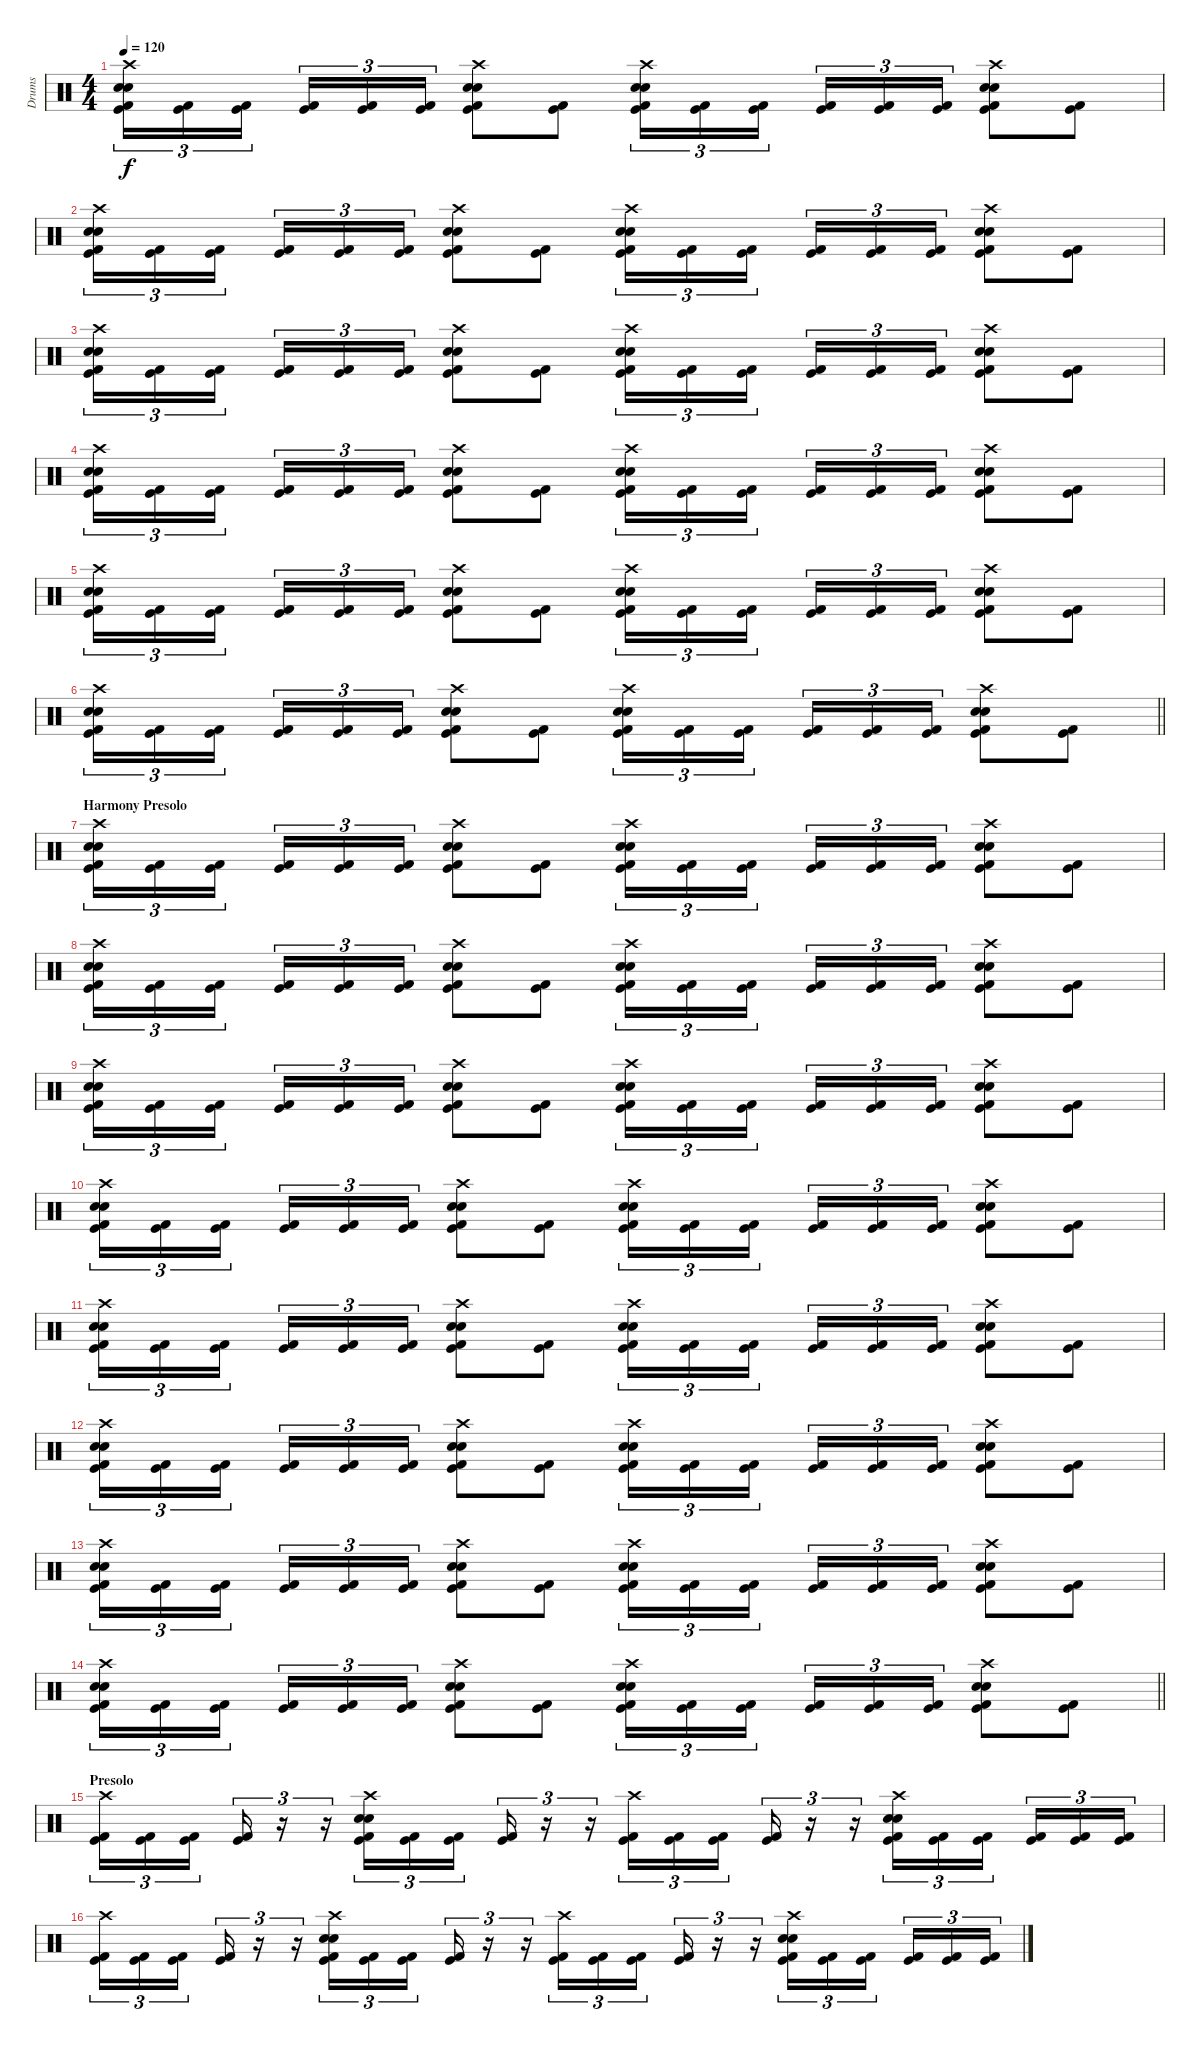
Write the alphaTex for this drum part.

\track ("Drums" "Drums") {instrument percussion}
\staff {score}
\articulation defaults
\ts (4 4)
\tempo 120
\clef neutral
\ks c
("Crash high (hit)" "Electric Snare (hit)" "Electric Snare (hit)" "Kick (hit) 2" "Kick (hit)").16{tu (3 2) dy f} ("Kick (hit) 2" "Kick (hit)").16{tu (3 2)} ("Kick (hit) 2" "Kick (hit)").16{tu (3 2) beam splitsecondary} ("Kick (hit) 2" "Kick (hit)").16{tu (3 2)} ("Kick (hit) 2" "Kick (hit)").16{tu (3 2)} ("Kick (hit) 2" "Kick (hit)").16{tu (3 2)} ("Crash high (hit)" "Electric Snare (hit)" "Electric Snare (hit)" "Kick (hit) 2" "Kick (hit)").8 ("Kick (hit) 2" "Kick (hit)").8 ("Crash high (hit)" "Electric Snare (hit)" "Electric Snare (hit)" "Kick (hit) 2" "Kick (hit)").16{tu (3 2)} ("Kick (hit) 2" "Kick (hit)").16{tu (3 2)} ("Kick (hit) 2" "Kick (hit)").16{tu (3 2) beam splitsecondary} ("Kick (hit) 2" "Kick (hit)").16{tu (3 2)} ("Kick (hit) 2" "Kick (hit)").16{tu (3 2)} ("Kick (hit) 2" "Kick (hit)").16{tu (3 2)} ("Crash high (hit)" "Electric Snare (hit)" "Electric Snare (hit)" "Kick (hit) 2" "Kick (hit)").8 ("Kick (hit) 2" "Kick (hit)").8 |
("Crash high (hit)" "Electric Snare (hit)" "Electric Snare (hit)" "Kick (hit) 2" "Kick (hit)").16{tu (3 2)} ("Kick (hit) 2" "Kick (hit)").16{tu (3 2)} ("Kick (hit) 2" "Kick (hit)").16{tu (3 2) beam splitsecondary} ("Kick (hit) 2" "Kick (hit)").16{tu (3 2)} ("Kick (hit) 2" "Kick (hit)").16{tu (3 2)} ("Kick (hit) 2" "Kick (hit)").16{tu (3 2)} ("Crash high (hit)" "Electric Snare (hit)" "Electric Snare (hit)" "Kick (hit) 2" "Kick (hit)").8 ("Kick (hit) 2" "Kick (hit)").8 ("Crash high (hit)" "Electric Snare (hit)" "Electric Snare (hit)" "Kick (hit) 2" "Kick (hit)").16{tu (3 2)} ("Kick (hit) 2" "Kick (hit)").16{tu (3 2)} ("Kick (hit) 2" "Kick (hit)").16{tu (3 2) beam splitsecondary} ("Kick (hit) 2" "Kick (hit)").16{tu (3 2)} ("Kick (hit) 2" "Kick (hit)").16{tu (3 2)} ("Kick (hit) 2" "Kick (hit)").16{tu (3 2)} ("Crash high (hit)" "Electric Snare (hit)" "Electric Snare (hit)" "Kick (hit) 2" "Kick (hit)").8 ("Kick (hit) 2" "Kick (hit)").8 |
("Crash high (hit)" "Electric Snare (hit)" "Electric Snare (hit)" "Kick (hit) 2" "Kick (hit)").16{tu (3 2)} ("Kick (hit) 2" "Kick (hit)").16{tu (3 2)} ("Kick (hit) 2" "Kick (hit)").16{tu (3 2) beam splitsecondary} ("Kick (hit) 2" "Kick (hit)").16{tu (3 2)} ("Kick (hit) 2" "Kick (hit)").16{tu (3 2)} ("Kick (hit) 2" "Kick (hit)").16{tu (3 2)} ("Crash high (hit)" "Electric Snare (hit)" "Electric Snare (hit)" "Kick (hit) 2" "Kick (hit)").8 ("Kick (hit) 2" "Kick (hit)").8 ("Crash high (hit)" "Electric Snare (hit)" "Electric Snare (hit)" "Kick (hit) 2" "Kick (hit)").16{tu (3 2)} ("Kick (hit) 2" "Kick (hit)").16{tu (3 2)} ("Kick (hit) 2" "Kick (hit)").16{tu (3 2) beam splitsecondary} ("Kick (hit) 2" "Kick (hit)").16{tu (3 2)} ("Kick (hit) 2" "Kick (hit)").16{tu (3 2)} ("Kick (hit) 2" "Kick (hit)").16{tu (3 2)} ("Crash high (hit)" "Electric Snare (hit)" "Electric Snare (hit)" "Kick (hit) 2" "Kick (hit)").8 ("Kick (hit) 2" "Kick (hit)").8 |
("Crash high (hit)" "Electric Snare (hit)" "Electric Snare (hit)" "Kick (hit) 2" "Kick (hit)").16{tu (3 2)} ("Kick (hit) 2" "Kick (hit)").16{tu (3 2)} ("Kick (hit) 2" "Kick (hit)").16{tu (3 2) beam splitsecondary} ("Kick (hit) 2" "Kick (hit)").16{tu (3 2)} ("Kick (hit) 2" "Kick (hit)").16{tu (3 2)} ("Kick (hit) 2" "Kick (hit)").16{tu (3 2)} ("Crash high (hit)" "Electric Snare (hit)" "Electric Snare (hit)" "Kick (hit) 2" "Kick (hit)").8 ("Kick (hit) 2" "Kick (hit)").8 ("Crash high (hit)" "Electric Snare (hit)" "Electric Snare (hit)" "Kick (hit) 2" "Kick (hit)").16{tu (3 2)} ("Kick (hit) 2" "Kick (hit)").16{tu (3 2)} ("Kick (hit) 2" "Kick (hit)").16{tu (3 2) beam splitsecondary} ("Kick (hit) 2" "Kick (hit)").16{tu (3 2)} ("Kick (hit) 2" "Kick (hit)").16{tu (3 2)} ("Kick (hit) 2" "Kick (hit)").16{tu (3 2)} ("Crash high (hit)" "Electric Snare (hit)" "Electric Snare (hit)" "Kick (hit) 2" "Kick (hit)").8 ("Kick (hit) 2" "Kick (hit)").8 |
("Crash high (hit)" "Electric Snare (hit)" "Electric Snare (hit)" "Kick (hit) 2" "Kick (hit)").16{tu (3 2)} ("Kick (hit) 2" "Kick (hit)").16{tu (3 2)} ("Kick (hit) 2" "Kick (hit)").16{tu (3 2) beam splitsecondary} ("Kick (hit) 2" "Kick (hit)").16{tu (3 2)} ("Kick (hit) 2" "Kick (hit)").16{tu (3 2)} ("Kick (hit) 2" "Kick (hit)").16{tu (3 2)} ("Crash high (hit)" "Electric Snare (hit)" "Electric Snare (hit)" "Kick (hit) 2" "Kick (hit)").8 ("Kick (hit) 2" "Kick (hit)").8 ("Crash high (hit)" "Electric Snare (hit)" "Electric Snare (hit)" "Kick (hit) 2" "Kick (hit)").16{tu (3 2)} ("Kick (hit) 2" "Kick (hit)").16{tu (3 2)} ("Kick (hit) 2" "Kick (hit)").16{tu (3 2) beam splitsecondary} ("Kick (hit) 2" "Kick (hit)").16{tu (3 2)} ("Kick (hit) 2" "Kick (hit)").16{tu (3 2)} ("Kick (hit) 2" "Kick (hit)").16{tu (3 2)} ("Crash high (hit)" "Electric Snare (hit)" "Electric Snare (hit)" "Kick (hit) 2" "Kick (hit)").8 ("Kick (hit) 2" "Kick (hit)").8 |
\barLineRight lightlight
("Crash high (hit)" "Electric Snare (hit)" "Electric Snare (hit)" "Kick (hit) 2" "Kick (hit)").16{tu (3 2)} ("Kick (hit) 2" "Kick (hit)").16{tu (3 2)} ("Kick (hit) 2" "Kick (hit)").16{tu (3 2) beam splitsecondary} ("Kick (hit) 2" "Kick (hit)").16{tu (3 2)} ("Kick (hit) 2" "Kick (hit)").16{tu (3 2)} ("Kick (hit) 2" "Kick (hit)").16{tu (3 2)} ("Crash high (hit)" "Electric Snare (hit)" "Electric Snare (hit)" "Kick (hit) 2" "Kick (hit)").8 ("Kick (hit) 2" "Kick (hit)").8 ("Crash high (hit)" "Electric Snare (hit)" "Electric Snare (hit)" "Kick (hit) 2" "Kick (hit)").16{tu (3 2)} ("Kick (hit) 2" "Kick (hit)").16{tu (3 2)} ("Kick (hit) 2" "Kick (hit)").16{tu (3 2) beam splitsecondary} ("Kick (hit) 2" "Kick (hit)").16{tu (3 2)} ("Kick (hit) 2" "Kick (hit)").16{tu (3 2)} ("Kick (hit) 2" "Kick (hit)").16{tu (3 2)} ("Crash high (hit)" "Electric Snare (hit)" "Electric Snare (hit)" "Kick (hit) 2" "Kick (hit)").8 ("Kick (hit) 2" "Kick (hit)").8 |
\section ("" "Harmony Presolo")
("Crash high (hit)" "Electric Snare (hit)" "Electric Snare (hit)" "Kick (hit) 2" "Kick (hit)").16{tu (3 2)} ("Kick (hit) 2" "Kick (hit)").16{tu (3 2)} ("Kick (hit) 2" "Kick (hit)").16{tu (3 2) beam splitsecondary} ("Kick (hit) 2" "Kick (hit)").16{tu (3 2)} ("Kick (hit) 2" "Kick (hit)").16{tu (3 2)} ("Kick (hit) 2" "Kick (hit)").16{tu (3 2)} ("Crash high (hit)" "Electric Snare (hit)" "Electric Snare (hit)" "Kick (hit) 2" "Kick (hit)").8 ("Kick (hit) 2" "Kick (hit)").8 ("Crash high (hit)" "Electric Snare (hit)" "Electric Snare (hit)" "Kick (hit) 2" "Kick (hit)").16{tu (3 2)} ("Kick (hit) 2" "Kick (hit)").16{tu (3 2)} ("Kick (hit) 2" "Kick (hit)").16{tu (3 2) beam splitsecondary} ("Kick (hit) 2" "Kick (hit)").16{tu (3 2)} ("Kick (hit) 2" "Kick (hit)").16{tu (3 2)} ("Kick (hit) 2" "Kick (hit)").16{tu (3 2)} ("Crash high (hit)" "Electric Snare (hit)" "Electric Snare (hit)" "Kick (hit) 2" "Kick (hit)").8 ("Kick (hit) 2" "Kick (hit)").8 |
("Crash high (hit)" "Electric Snare (hit)" "Electric Snare (hit)" "Kick (hit) 2" "Kick (hit)").16{tu (3 2)} ("Kick (hit) 2" "Kick (hit)").16{tu (3 2)} ("Kick (hit) 2" "Kick (hit)").16{tu (3 2) beam splitsecondary} ("Kick (hit) 2" "Kick (hit)").16{tu (3 2)} ("Kick (hit) 2" "Kick (hit)").16{tu (3 2)} ("Kick (hit) 2" "Kick (hit)").16{tu (3 2)} ("Crash high (hit)" "Electric Snare (hit)" "Electric Snare (hit)" "Kick (hit) 2" "Kick (hit)").8 ("Kick (hit) 2" "Kick (hit)").8 ("Crash high (hit)" "Electric Snare (hit)" "Electric Snare (hit)" "Kick (hit) 2" "Kick (hit)").16{tu (3 2)} ("Kick (hit) 2" "Kick (hit)").16{tu (3 2)} ("Kick (hit) 2" "Kick (hit)").16{tu (3 2) beam splitsecondary} ("Kick (hit) 2" "Kick (hit)").16{tu (3 2)} ("Kick (hit) 2" "Kick (hit)").16{tu (3 2)} ("Kick (hit) 2" "Kick (hit)").16{tu (3 2)} ("Crash high (hit)" "Electric Snare (hit)" "Electric Snare (hit)" "Kick (hit) 2" "Kick (hit)").8 ("Kick (hit) 2" "Kick (hit)").8 |
("Crash high (hit)" "Electric Snare (hit)" "Electric Snare (hit)" "Kick (hit) 2" "Kick (hit)").16{tu (3 2)} ("Kick (hit) 2" "Kick (hit)").16{tu (3 2)} ("Kick (hit) 2" "Kick (hit)").16{tu (3 2) beam splitsecondary} ("Kick (hit) 2" "Kick (hit)").16{tu (3 2)} ("Kick (hit) 2" "Kick (hit)").16{tu (3 2)} ("Kick (hit) 2" "Kick (hit)").16{tu (3 2)} ("Crash high (hit)" "Electric Snare (hit)" "Electric Snare (hit)" "Kick (hit) 2" "Kick (hit)").8 ("Kick (hit) 2" "Kick (hit)").8 ("Crash high (hit)" "Electric Snare (hit)" "Electric Snare (hit)" "Kick (hit) 2" "Kick (hit)").16{tu (3 2)} ("Kick (hit) 2" "Kick (hit)").16{tu (3 2)} ("Kick (hit) 2" "Kick (hit)").16{tu (3 2) beam splitsecondary} ("Kick (hit) 2" "Kick (hit)").16{tu (3 2)} ("Kick (hit) 2" "Kick (hit)").16{tu (3 2)} ("Kick (hit) 2" "Kick (hit)").16{tu (3 2)} ("Crash high (hit)" "Electric Snare (hit)" "Electric Snare (hit)" "Kick (hit) 2" "Kick (hit)").8 ("Kick (hit) 2" "Kick (hit)").8 |
("Crash high (hit)" "Electric Snare (hit)" "Electric Snare (hit)" "Kick (hit) 2" "Kick (hit)").16{tu (3 2)} ("Kick (hit) 2" "Kick (hit)").16{tu (3 2)} ("Kick (hit) 2" "Kick (hit)").16{tu (3 2) beam splitsecondary} ("Kick (hit) 2" "Kick (hit)").16{tu (3 2)} ("Kick (hit) 2" "Kick (hit)").16{tu (3 2)} ("Kick (hit) 2" "Kick (hit)").16{tu (3 2)} ("Crash high (hit)" "Electric Snare (hit)" "Electric Snare (hit)" "Kick (hit) 2" "Kick (hit)").8 ("Kick (hit) 2" "Kick (hit)").8 ("Crash high (hit)" "Electric Snare (hit)" "Electric Snare (hit)" "Kick (hit) 2" "Kick (hit)").16{tu (3 2)} ("Kick (hit) 2" "Kick (hit)").16{tu (3 2)} ("Kick (hit) 2" "Kick (hit)").16{tu (3 2) beam splitsecondary} ("Kick (hit) 2" "Kick (hit)").16{tu (3 2)} ("Kick (hit) 2" "Kick (hit)").16{tu (3 2)} ("Kick (hit) 2" "Kick (hit)").16{tu (3 2)} ("Crash high (hit)" "Electric Snare (hit)" "Electric Snare (hit)" "Kick (hit) 2" "Kick (hit)").8 ("Kick (hit) 2" "Kick (hit)").8 |
("Crash high (hit)" "Electric Snare (hit)" "Electric Snare (hit)" "Kick (hit) 2" "Kick (hit)").16{tu (3 2)} ("Kick (hit) 2" "Kick (hit)").16{tu (3 2)} ("Kick (hit) 2" "Kick (hit)").16{tu (3 2) beam splitsecondary} ("Kick (hit) 2" "Kick (hit)").16{tu (3 2)} ("Kick (hit) 2" "Kick (hit)").16{tu (3 2)} ("Kick (hit) 2" "Kick (hit)").16{tu (3 2)} ("Crash high (hit)" "Electric Snare (hit)" "Electric Snare (hit)" "Kick (hit) 2" "Kick (hit)").8 ("Kick (hit) 2" "Kick (hit)").8 ("Crash high (hit)" "Electric Snare (hit)" "Electric Snare (hit)" "Kick (hit) 2" "Kick (hit)").16{tu (3 2)} ("Kick (hit) 2" "Kick (hit)").16{tu (3 2)} ("Kick (hit) 2" "Kick (hit)").16{tu (3 2) beam splitsecondary} ("Kick (hit) 2" "Kick (hit)").16{tu (3 2)} ("Kick (hit) 2" "Kick (hit)").16{tu (3 2)} ("Kick (hit) 2" "Kick (hit)").16{tu (3 2)} ("Crash high (hit)" "Electric Snare (hit)" "Electric Snare (hit)" "Kick (hit) 2" "Kick (hit)").8 ("Kick (hit) 2" "Kick (hit)").8 |
("Crash high (hit)" "Electric Snare (hit)" "Electric Snare (hit)" "Kick (hit) 2" "Kick (hit)").16{tu (3 2)} ("Kick (hit) 2" "Kick (hit)").16{tu (3 2)} ("Kick (hit) 2" "Kick (hit)").16{tu (3 2) beam splitsecondary} ("Kick (hit) 2" "Kick (hit)").16{tu (3 2)} ("Kick (hit) 2" "Kick (hit)").16{tu (3 2)} ("Kick (hit) 2" "Kick (hit)").16{tu (3 2)} ("Crash high (hit)" "Electric Snare (hit)" "Electric Snare (hit)" "Kick (hit) 2" "Kick (hit)").8 ("Kick (hit) 2" "Kick (hit)").8 ("Crash high (hit)" "Electric Snare (hit)" "Electric Snare (hit)" "Kick (hit) 2" "Kick (hit)").16{tu (3 2)} ("Kick (hit) 2" "Kick (hit)").16{tu (3 2)} ("Kick (hit) 2" "Kick (hit)").16{tu (3 2) beam splitsecondary} ("Kick (hit) 2" "Kick (hit)").16{tu (3 2)} ("Kick (hit) 2" "Kick (hit)").16{tu (3 2)} ("Kick (hit) 2" "Kick (hit)").16{tu (3 2)} ("Crash high (hit)" "Electric Snare (hit)" "Electric Snare (hit)" "Kick (hit) 2" "Kick (hit)").8 ("Kick (hit) 2" "Kick (hit)").8 |
("Crash high (hit)" "Electric Snare (hit)" "Electric Snare (hit)" "Kick (hit) 2" "Kick (hit)").16{tu (3 2)} ("Kick (hit) 2" "Kick (hit)").16{tu (3 2)} ("Kick (hit) 2" "Kick (hit)").16{tu (3 2) beam splitsecondary} ("Kick (hit) 2" "Kick (hit)").16{tu (3 2)} ("Kick (hit) 2" "Kick (hit)").16{tu (3 2)} ("Kick (hit) 2" "Kick (hit)").16{tu (3 2)} ("Crash high (hit)" "Electric Snare (hit)" "Electric Snare (hit)" "Kick (hit) 2" "Kick (hit)").8 ("Kick (hit) 2" "Kick (hit)").8 ("Crash high (hit)" "Electric Snare (hit)" "Electric Snare (hit)" "Kick (hit) 2" "Kick (hit)").16{tu (3 2)} ("Kick (hit) 2" "Kick (hit)").16{tu (3 2)} ("Kick (hit) 2" "Kick (hit)").16{tu (3 2) beam splitsecondary} ("Kick (hit) 2" "Kick (hit)").16{tu (3 2)} ("Kick (hit) 2" "Kick (hit)").16{tu (3 2)} ("Kick (hit) 2" "Kick (hit)").16{tu (3 2)} ("Crash high (hit)" "Electric Snare (hit)" "Electric Snare (hit)" "Kick (hit) 2" "Kick (hit)").8 ("Kick (hit) 2" "Kick (hit)").8 |
\barLineRight lightlight
("Crash high (hit)" "Electric Snare (hit)" "Electric Snare (hit)" "Kick (hit) 2" "Kick (hit)").16{tu (3 2)} ("Kick (hit) 2" "Kick (hit)").16{tu (3 2)} ("Kick (hit) 2" "Kick (hit)").16{tu (3 2) beam splitsecondary} ("Kick (hit) 2" "Kick (hit)").16{tu (3 2)} ("Kick (hit) 2" "Kick (hit)").16{tu (3 2)} ("Kick (hit) 2" "Kick (hit)").16{tu (3 2)} ("Crash high (hit)" "Electric Snare (hit)" "Electric Snare (hit)" "Kick (hit) 2" "Kick (hit)").8 ("Kick (hit) 2" "Kick (hit)").8 ("Crash high (hit)" "Electric Snare (hit)" "Electric Snare (hit)" "Kick (hit) 2" "Kick (hit)").16{tu (3 2)} ("Kick (hit) 2" "Kick (hit)").16{tu (3 2)} ("Kick (hit) 2" "Kick (hit)").16{tu (3 2) beam splitsecondary} ("Kick (hit) 2" "Kick (hit)").16{tu (3 2)} ("Kick (hit) 2" "Kick (hit)").16{tu (3 2)} ("Kick (hit) 2" "Kick (hit)").16{tu (3 2)} ("Crash high (hit)" "Electric Snare (hit)" "Electric Snare (hit)" "Kick (hit) 2" "Kick (hit)").8 ("Kick (hit) 2" "Kick (hit)").8 |
\section ("" "Presolo")
("Crash high (hit)" "Kick (hit) 2" "Kick (hit)").16{tu (3 2)} ("Kick (hit) 2" "Kick (hit)").16{tu (3 2)} ("Kick (hit) 2" "Kick (hit)").16{tu (3 2) beam splitsecondary} ("Kick (hit) 2" "Kick (hit)").16{tu (3 2)} r.16{tu (3 2)} r.16{tu (3 2)} ("Crash high (hit)" "Electric Snare (hit)" "Electric Snare (hit)" "Kick (hit) 2" "Kick (hit)").16{tu (3 2)} ("Kick (hit) 2" "Kick (hit)").16{tu (3 2)} ("Kick (hit) 2" "Kick (hit)").16{tu (3 2) beam splitsecondary} ("Kick (hit) 2" "Kick (hit)").16{tu (3 2)} r.16{tu (3 2)} r.16{tu (3 2)} ("Crash high (hit)" "Kick (hit) 2" "Kick (hit)").16{tu (3 2)} ("Kick (hit) 2" "Kick (hit)").16{tu (3 2)} ("Kick (hit) 2" "Kick (hit)").16{tu (3 2) beam splitsecondary} ("Kick (hit) 2" "Kick (hit)").16{tu (3 2)} r.16{tu (3 2)} r.16{tu (3 2)} ("Crash high (hit)" "Electric Snare (hit)" "Electric Snare (hit)" "Kick (hit) 2" "Kick (hit)").16{tu (3 2)} ("Kick (hit) 2" "Kick (hit)").16{tu (3 2)} ("Kick (hit) 2" "Kick (hit)").16{tu (3 2) beam splitsecondary} ("Kick (hit) 2" "Kick (hit)").16{tu (3 2)} ("Kick (hit) 2" "Kick (hit)").16{tu (3 2)} ("Kick (hit) 2" "Kick (hit)").16{tu (3 2)} |
("Crash high (hit)" "Kick (hit) 2" "Kick (hit)").16{tu (3 2)} ("Kick (hit) 2" "Kick (hit)").16{tu (3 2)} ("Kick (hit) 2" "Kick (hit)").16{tu (3 2) beam splitsecondary} ("Kick (hit) 2" "Kick (hit)").16{tu (3 2)} r.16{tu (3 2)} r.16{tu (3 2)} ("Crash high (hit)" "Electric Snare (hit)" "Electric Snare (hit)" "Kick (hit) 2" "Kick (hit)").16{tu (3 2)} ("Kick (hit) 2" "Kick (hit)").16{tu (3 2)} ("Kick (hit) 2" "Kick (hit)").16{tu (3 2) beam splitsecondary} ("Kick (hit) 2" "Kick (hit)").16{tu (3 2)} r.16{tu (3 2)} r.16{tu (3 2)} ("Crash high (hit)" "Kick (hit) 2" "Kick (hit)").16{tu (3 2)} ("Kick (hit) 2" "Kick (hit)").16{tu (3 2)} ("Kick (hit) 2" "Kick (hit)").16{tu (3 2) beam splitsecondary} ("Kick (hit) 2" "Kick (hit)").16{tu (3 2)} r.16{tu (3 2)} r.16{tu (3 2)} ("Crash high (hit)" "Electric Snare (hit)" "Electric Snare (hit)" "Kick (hit) 2" "Kick (hit)").16{tu (3 2)} ("Kick (hit) 2" "Kick (hit)").16{tu (3 2)} ("Kick (hit) 2" "Kick (hit)").16{tu (3 2) beam splitsecondary} ("Kick (hit) 2" "Kick (hit)").16{tu (3 2)} ("Kick (hit) 2" "Kick (hit)").16{tu (3 2)} ("Kick (hit) 2" "Kick (hit)").16{tu (3 2)}
